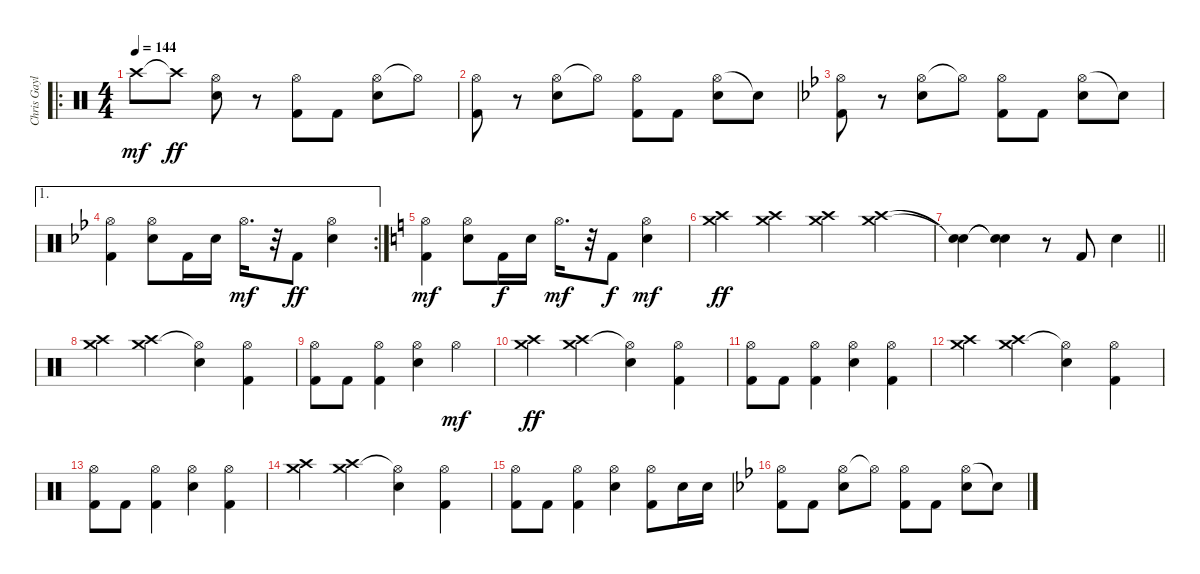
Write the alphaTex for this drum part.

\track ("Chris Gaylor" "Chris Gayl") {instrument percussion}
\staff {score}
\articulation defaults
\ro
\ts (4 4)
\tempo 144
\clef neutral
\ks c "Crash high (hit)".8{dy mf} "Crash high (hit)"{t}.8{dy ff}
("Hi-Hat (open)" "Snare (hit) 2").8 r.8 ("Hi-Hat (open)" "Kick (hit) 2").8 "Kick (hit) 2".8 ("Hi-Hat (open)" "Snare (hit) 2").8 "Hi-Hat (open)"{t}.8 |
("Hi-Hat (open)" "Kick (hit) 2").8 r.8 ("Hi-Hat (open)" "Snare (hit) 2").8 "Hi-Hat (open)"{t}.8 ("Hi-Hat (open)" "Kick (hit) 2").8 "Kick (hit) 2".8 ("Hi-Hat (open)" "Snare (hit) 2").8 "Snare (hit)"{t}.8 |
\ks bb
("Hi-Hat (open)" "Kick (hit) 2").8 r.8 ("Hi-Hat (open)" "Snare (hit) 2").8 "Hi-Hat (open)"{t}.8 ("Hi-Hat (open)" "Kick (hit) 2").8 "Kick (hit) 2".8 ("Hi-Hat (open)" "Snare (hit) 2").8 "Snare (hit)"{t}.8 |
\ae 1
\rc 2
("Hi-Hat (open)" "Kick (hit) 2").4 ("Hi-Hat (open)" "Snare (hit) 2").8 "Kick (hit) 2".16 "Snare (hit) 2".16 "Hi-Hat (open)".16{d dy mf} r.32 "Kick (hit) 2".8{dy ff} ("Hi-Hat (open)" "Snare (hit) 2").4 |
\ks c
("Hi-Hat (open)" "Kick (hit) 2").4{dy mf} ("Hi-Hat (open)" "Snare (hit) 2").8 "Kick (hit) 2".16{dy f} "Snare (hit) 2".16 "Hi-Hat (open)".16{d dy mf} r.32 "Kick (hit) 2".8{dy f} ("Hi-Hat (open)" "Snare (hit) 2").4{dy mf} |
("Crash medium (hit)" "Crash high (hit)").4{dy ff} ("Crash medium (hit)" "Crash high (hit)").4 ("Crash medium (hit)" "Crash high (hit)").4 ("Crash medium (hit)" "Crash high (hit)").4 |
\barLineRight lightlight
("Snare (hit)"{t} "Snare (hit)"{t}).4 ("Snare (hit)"{t} "Snare (hit)"{t}).4 r.8 "Kick (hit) 2".8 "Snare (hit) 2".4 |
("Crash medium (hit)" "Crash high (hit)").4 ("Crash medium (hit)" "Crash high (hit)").4 ("Hi-Hat (open)"{t} "Snare (hit) 2").4 ("Hi-Hat (open)" "Kick (hit) 2").4 |
("Hi-Hat (open)" "Kick (hit) 2").8 "Kick (hit) 2".8 ("Hi-Hat (open)" "Kick (hit) 2").4 ("Hi-Hat (open)" "Snare (hit) 2").4 "Hi-Hat (open)".4{dy mf} |
("Crash medium (hit)" "Crash high (hit)").4{dy ff} ("Crash medium (hit)" "Crash high (hit)").4 ("Hi-Hat (open)"{t} "Snare (hit) 2").4 ("Hi-Hat (open)" "Kick (hit) 2").4 |
("Hi-Hat (open)" "Kick (hit) 2").8 "Kick (hit) 2".8 ("Hi-Hat (open)" "Kick (hit) 2").4 ("Hi-Hat (open)" "Snare (hit) 2").4 ("Hi-Hat (open)" "Kick (hit) 2").4 |
("Crash medium (hit)" "Crash high (hit)").4 ("Crash medium (hit)" "Crash high (hit)").4 ("Hi-Hat (open)"{t} "Snare (hit) 2").4 ("Hi-Hat (open)" "Kick (hit) 2").4 |
("Hi-Hat (open)" "Kick (hit) 2").8 "Kick (hit) 2".8 ("Hi-Hat (open)" "Kick (hit) 2").4 ("Hi-Hat (open)" "Snare (hit) 2").4 ("Hi-Hat (open)" "Kick (hit) 2").4 |
("Crash medium (hit)" "Crash high (hit)").4 ("Crash medium (hit)" "Crash high (hit)").4 ("Hi-Hat (open)"{t} "Snare (hit) 2").4 ("Hi-Hat (open)" "Kick (hit) 2").4 |
("Hi-Hat (open)" "Kick (hit) 2").8 "Kick (hit) 2".8 ("Hi-Hat (open)" "Kick (hit) 2").4 ("Hi-Hat (open)" "Snare (hit) 2").4 ("Hi-Hat (open)" "Kick (hit) 2").8 "Snare (hit) 2".16 "Snare (hit) 2".16 |
\ks bb
("Hi-Hat (open)" "Kick (hit) 2").8 "Kick (hit) 2".8 ("Hi-Hat (open)" "Snare (hit) 2").8 "Hi-Hat (open)"{t}.8 ("Hi-Hat (open)" "Kick (hit) 2").8 "Kick (hit) 2".8 ("Hi-Hat (open)" "Snare (hit) 2").8 "Snare (hit)"{t}.8
